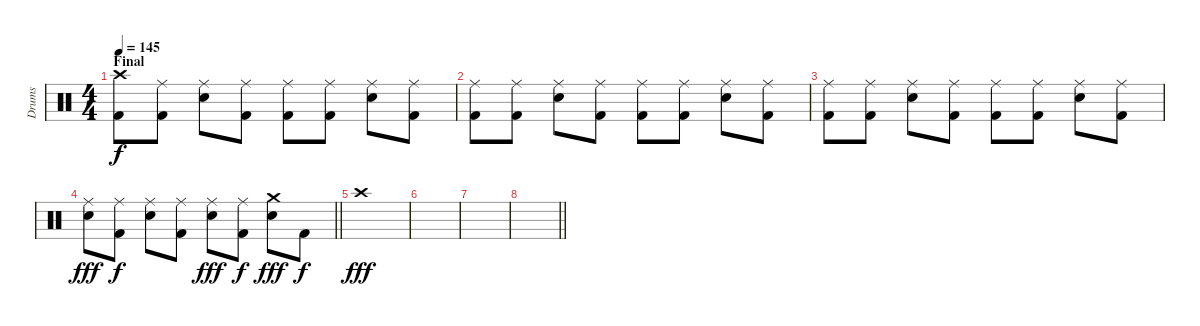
\track ("Drums" "Drums") {instrument percussion}
\staff {score}
\articulation defaults
\ts (4 4)
\section ("" "Final")
\tempo 145
\clef neutral
\ks c
("Kick (hit) 2" "Crash high (hit)").8{dy f} ("Kick (hit) 2" "Ride (middle)").8 ("Snare (hit) 2" "Ride (middle)").8 ("Kick (hit) 2" "Ride (middle)").8 ("Kick (hit) 2" "Ride (middle)").8 ("Kick (hit) 2" "Ride (middle)").8 ("Snare (hit) 2" "Ride (middle)").8 ("Kick (hit) 2" "Ride (middle)").8 |
("Kick (hit) 2" "Ride (middle)").8 ("Kick (hit) 2" "Ride (middle)").8 ("Snare (hit) 2" "Ride (middle)").8 ("Kick (hit) 2" "Ride (middle)").8 ("Kick (hit) 2" "Ride (middle)").8 ("Kick (hit) 2" "Ride (middle)").8 ("Snare (hit) 2" "Ride (middle)").8 ("Kick (hit) 2" "Ride (middle)").8 |
("Kick (hit) 2" "Ride (middle)").8 ("Kick (hit) 2" "Ride (middle)").8 ("Snare (hit) 2" "Ride (middle)").8 ("Kick (hit) 2" "Ride (middle)").8 ("Kick (hit) 2" "Ride (middle)").8 ("Kick (hit) 2" "Ride (middle)").8 ("Snare (hit) 2" "Ride (middle)").8 ("Kick (hit) 2" "Ride (middle)").8 |
\barLineRight lightlight
("Snare (hit) 2" "Ride (middle)").8{dy fff} ("Kick (hit) 2" "Ride (middle)").8{dy f} ("Snare (hit) 2" "Ride (middle)").8 ("Kick (hit) 2" "Ride (middle)").8 ("Snare (hit) 2" "Ride (middle)").8{dy fff} ("Kick (hit) 2" "Ride (middle)").8{dy f} ("Snare (hit) 2" "Crash medium (hit)").8{dy fff} "Kick (hit) 2".8{dy f} |
"Crash high (hit)".1{dy fff} |
|
|
\barLineRight lightlight
